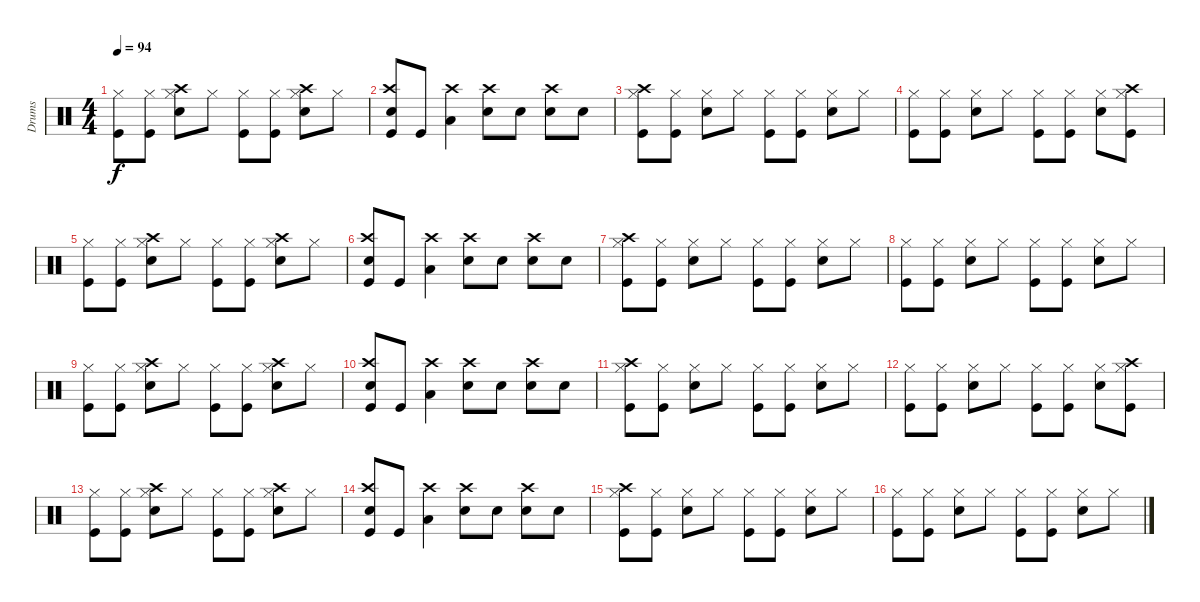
\track ("Drums" "Drums") {instrument percussion}
\staff {score}
\articulation defaults
\ts (4 4)
\tempo 94
\clef neutral
\ks c
("Hi-Hat (closed)" "Kick (hit)").8{dy f} ("Hi-Hat (closed)" "Kick (hit)").8 ("Crash high (hit)" "Hi-Hat (closed)" "Snare (hit) 2").8 "Hi-Hat (closed)".8 ("Hi-Hat (closed)" "Kick (hit)").8 ("Hi-Hat (closed)" "Kick (hit)").8 ("Crash high (hit)" "Hi-Hat (closed)" "Snare (hit) 2").8 "Hi-Hat (closed)".8 |
("Crash high (hit)" "Snare (hit) 2" "Kick (hit)").8 "Kick (hit)".8 ("Crash high (hit)" "Low Tom (hit)").4 ("Crash high (hit)" "Snare (hit) 2").8 "Snare (hit) 2".8 ("Crash high (hit)" "Snare (hit) 2").8 "Snare (hit) 2".8 |
("Crash high (hit)" "Hi-Hat (closed)" "Kick (hit)").8 ("Hi-Hat (closed)" "Kick (hit)").8 ("Hi-Hat (closed)" "Snare (hit) 2").8 "Hi-Hat (closed)".8 ("Hi-Hat (closed)" "Kick (hit)").8 ("Hi-Hat (closed)" "Kick (hit)").8 ("Hi-Hat (closed)" "Snare (hit) 2").8 "Hi-Hat (closed)".8 |
("Hi-Hat (closed)" "Kick (hit)").8 ("Hi-Hat (closed)" "Kick (hit)").8 ("Hi-Hat (closed)" "Snare (hit) 2").8 "Hi-Hat (closed)".8 ("Hi-Hat (closed)" "Kick (hit)").8 ("Hi-Hat (closed)" "Kick (hit)").8 ("Hi-Hat (closed)" "Snare (hit) 2").8 ("Crash high (hit)" "Hi-Hat (closed)" "Kick (hit)").8 |
("Hi-Hat (closed)" "Kick (hit)").8 ("Hi-Hat (closed)" "Kick (hit)").8 ("Crash high (hit)" "Hi-Hat (closed)" "Snare (hit) 2").8 "Hi-Hat (closed)".8 ("Hi-Hat (closed)" "Kick (hit)").8 ("Hi-Hat (closed)" "Kick (hit)").8 ("Crash high (hit)" "Hi-Hat (closed)" "Snare (hit) 2").8 "Hi-Hat (closed)".8 |
("Crash high (hit)" "Snare (hit) 2" "Kick (hit)").8 "Kick (hit)".8 ("Crash high (hit)" "Low Tom (hit)").4 ("Crash high (hit)" "Snare (hit) 2").8 "Snare (hit) 2".8 ("Crash high (hit)" "Snare (hit) 2").8 "Snare (hit) 2".8 |
("Crash high (hit)" "Hi-Hat (closed)" "Kick (hit)").8 ("Hi-Hat (closed)" "Kick (hit)").8 ("Hi-Hat (closed)" "Snare (hit) 2").8 "Hi-Hat (closed)".8 ("Hi-Hat (closed)" "Kick (hit)").8 ("Hi-Hat (closed)" "Kick (hit)").8 ("Hi-Hat (closed)" "Snare (hit) 2").8 "Hi-Hat (closed)".8 |
("Hi-Hat (closed)" "Kick (hit)").8 ("Hi-Hat (closed)" "Kick (hit)").8 ("Hi-Hat (closed)" "Snare (hit) 2").8 "Hi-Hat (closed)".8 ("Hi-Hat (closed)" "Kick (hit)").8 ("Hi-Hat (closed)" "Kick (hit)").8 ("Hi-Hat (closed)" "Snare (hit) 2").8 "Hi-Hat (closed)".8 |
("Hi-Hat (closed)" "Kick (hit)").8 ("Hi-Hat (closed)" "Kick (hit)").8 ("Crash high (hit)" "Hi-Hat (closed)" "Snare (hit) 2").8 "Hi-Hat (closed)".8 ("Hi-Hat (closed)" "Kick (hit)").8 ("Hi-Hat (closed)" "Kick (hit)").8 ("Crash high (hit)" "Hi-Hat (closed)" "Snare (hit) 2").8 "Hi-Hat (closed)".8 |
("Crash high (hit)" "Snare (hit) 2" "Kick (hit)").8 "Kick (hit)".8 ("Crash high (hit)" "Low Tom (hit)").4 ("Crash high (hit)" "Snare (hit) 2").8 "Snare (hit) 2".8 ("Crash high (hit)" "Snare (hit) 2").8 "Snare (hit) 2".8 |
("Crash high (hit)" "Hi-Hat (closed)" "Kick (hit)").8 ("Hi-Hat (closed)" "Kick (hit)").8 ("Hi-Hat (closed)" "Snare (hit) 2").8 "Hi-Hat (closed)".8 ("Hi-Hat (closed)" "Kick (hit)").8 ("Hi-Hat (closed)" "Kick (hit)").8 ("Hi-Hat (closed)" "Snare (hit) 2").8 "Hi-Hat (closed)".8 |
("Hi-Hat (closed)" "Kick (hit)").8 ("Hi-Hat (closed)" "Kick (hit)").8 ("Hi-Hat (closed)" "Snare (hit) 2").8 "Hi-Hat (closed)".8 ("Hi-Hat (closed)" "Kick (hit)").8 ("Hi-Hat (closed)" "Kick (hit)").8 ("Hi-Hat (closed)" "Snare (hit) 2").8 ("Crash high (hit)" "Hi-Hat (closed)" "Kick (hit)").8 |
("Hi-Hat (closed)" "Kick (hit)").8 ("Hi-Hat (closed)" "Kick (hit)").8 ("Crash high (hit)" "Hi-Hat (closed)" "Snare (hit) 2").8 "Hi-Hat (closed)".8 ("Hi-Hat (closed)" "Kick (hit)").8 ("Hi-Hat (closed)" "Kick (hit)").8 ("Crash high (hit)" "Hi-Hat (closed)" "Snare (hit) 2").8 "Hi-Hat (closed)".8 |
("Crash high (hit)" "Snare (hit) 2" "Kick (hit)").8 "Kick (hit)".8 ("Crash high (hit)" "Low Tom (hit)").4 ("Crash high (hit)" "Snare (hit) 2").8 "Snare (hit) 2".8 ("Crash high (hit)" "Snare (hit) 2").8 "Snare (hit) 2".8 |
("Crash high (hit)" "Hi-Hat (closed)" "Kick (hit)").8 ("Hi-Hat (closed)" "Kick (hit)").8 ("Hi-Hat (closed)" "Snare (hit) 2").8 "Hi-Hat (closed)".8 ("Hi-Hat (closed)" "Kick (hit)").8 ("Hi-Hat (closed)" "Kick (hit)").8 ("Hi-Hat (closed)" "Snare (hit) 2").8 "Hi-Hat (closed)".8 |
("Hi-Hat (closed)" "Kick (hit)").8 ("Hi-Hat (closed)" "Kick (hit)").8 ("Hi-Hat (closed)" "Snare (hit) 2").8 "Hi-Hat (closed)".8 ("Hi-Hat (closed)" "Kick (hit)").8 ("Hi-Hat (closed)" "Kick (hit)").8 ("Hi-Hat (closed)" "Snare (hit) 2").8 "Hi-Hat (closed)".8
